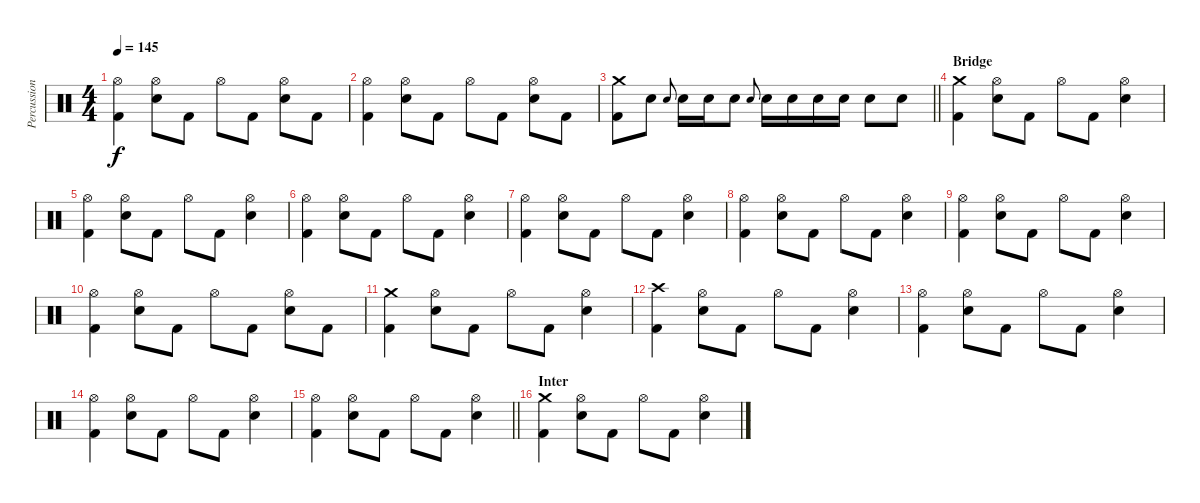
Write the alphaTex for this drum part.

\track ("Percussion" "Percussion") {instrument percussion}
\staff {score}
\articulation defaults
\ts (4 4)
\tempo 145
\clef neutral
\ks c
("Kick (hit) 2" "Hi-Hat (open)").4{dy f} ("Electric Snare (hit)" "Hi-Hat (open)").8 "Kick (hit) 2".8 "Hi-Hat (open)".8 "Kick (hit) 2".8 ("Electric Snare (hit)" "Hi-Hat (open)").8 "Kick (hit) 2".8 |
("Kick (hit) 2" "Hi-Hat (open)").4 ("Electric Snare (hit)" "Hi-Hat (open)").8 "Kick (hit) 2".8 "Hi-Hat (open)".8 "Kick (hit) 2".8 ("Electric Snare (hit)" "Hi-Hat (open)").8 "Kick (hit) 2".8 |
\barLineRight lightlight
("Crash medium (hit)" "Kick (hit) 2").8 "Electric Snare (hit)".8 "Electric Snare (hit)".8{gr onbeat} "Electric Snare (hit)".16 "Electric Snare (hit)".16 "Electric Snare (hit)".8 "Electric Snare (hit)".8{gr onbeat} "Electric Snare (hit)".16 "Electric Snare (hit)".16 "Electric Snare (hit)".16 "Electric Snare (hit)".16 "Electric Snare (hit)".8 "Electric Snare (hit)".8 |
\section ("" "Bridge")
("Kick (hit) 2" "Crash medium (hit)").4 ("Electric Snare (hit)" "Hi-Hat (open)").8 "Kick (hit) 2".8 "Hi-Hat (open)".8 "Kick (hit) 2".8 ("Electric Snare (hit)" "Hi-Hat (open)").4 |
("Kick (hit) 2" "Hi-Hat (open)").4 ("Electric Snare (hit)" "Hi-Hat (open)").8 "Kick (hit) 2".8 "Hi-Hat (open)".8 "Kick (hit) 2".8 ("Electric Snare (hit)" "Hi-Hat (open)").4 |
("Kick (hit) 2" "Hi-Hat (open)").4 ("Electric Snare (hit)" "Hi-Hat (open)").8 "Kick (hit) 2".8 "Hi-Hat (open)".8 "Kick (hit) 2".8 ("Electric Snare (hit)" "Hi-Hat (open)").4 |
("Kick (hit) 2" "Hi-Hat (open)").4 ("Electric Snare (hit)" "Hi-Hat (open)").8 "Kick (hit) 2".8 "Hi-Hat (open)".8 "Kick (hit) 2".8 ("Electric Snare (hit)" "Hi-Hat (open)").4 |
("Kick (hit) 2" "Hi-Hat (open)").4 ("Electric Snare (hit)" "Hi-Hat (open)").8 "Kick (hit) 2".8 "Hi-Hat (open)".8 "Kick (hit) 2".8 ("Electric Snare (hit)" "Hi-Hat (open)").4 |
("Kick (hit) 2" "Hi-Hat (open)").4 ("Electric Snare (hit)" "Hi-Hat (open)").8 "Kick (hit) 2".8 "Hi-Hat (open)".8 "Kick (hit) 2".8 ("Electric Snare (hit)" "Hi-Hat (open)").4 |
("Kick (hit) 2" "Hi-Hat (open)").4 ("Electric Snare (hit)" "Hi-Hat (open)").8 "Kick (hit) 2".8 "Hi-Hat (open)".8 "Kick (hit) 2".8 ("Electric Snare (hit)" "Hi-Hat (open)").8 "Kick (hit) 2".8 |
("Kick (hit) 2" "Crash medium (hit)").4 ("Electric Snare (hit)" "Hi-Hat (open)").8 "Kick (hit) 2".8 "Hi-Hat (open)".8 "Kick (hit) 2".8 ("Electric Snare (hit)" "Hi-Hat (open)").4 |
("Kick (hit) 2" "Crash high (hit)").4 ("Electric Snare (hit)" "Hi-Hat (open)").8 "Kick (hit) 2".8 "Hi-Hat (open)".8 "Kick (hit) 2".8 ("Electric Snare (hit)" "Hi-Hat (open)").4 |
("Kick (hit) 2" "Hi-Hat (open)").4 ("Electric Snare (hit)" "Hi-Hat (open)").8 "Kick (hit) 2".8 "Hi-Hat (open)".8 "Kick (hit) 2".8 ("Electric Snare (hit)" "Hi-Hat (open)").4 |
("Kick (hit) 2" "Hi-Hat (open)").4 ("Electric Snare (hit)" "Hi-Hat (open)").8 "Kick (hit) 2".8 "Hi-Hat (open)".8 "Kick (hit) 2".8 ("Electric Snare (hit)" "Hi-Hat (open)").4 |
\barLineRight lightlight
("Kick (hit) 2" "Hi-Hat (open)").4 ("Electric Snare (hit)" "Hi-Hat (open)").8 "Kick (hit) 2".8 "Hi-Hat (open)".8 "Kick (hit) 2".8 ("Electric Snare (hit)" "Hi-Hat (open)").4 |
\section ("" "Inter")
("Kick (hit) 2" "Crash medium (hit)").4 ("Electric Snare (hit)" "Hi-Hat (open)").8 "Kick (hit) 2".8 "Hi-Hat (open)".8 "Kick (hit) 2".8 ("Electric Snare (hit)" "Hi-Hat (open)").4
